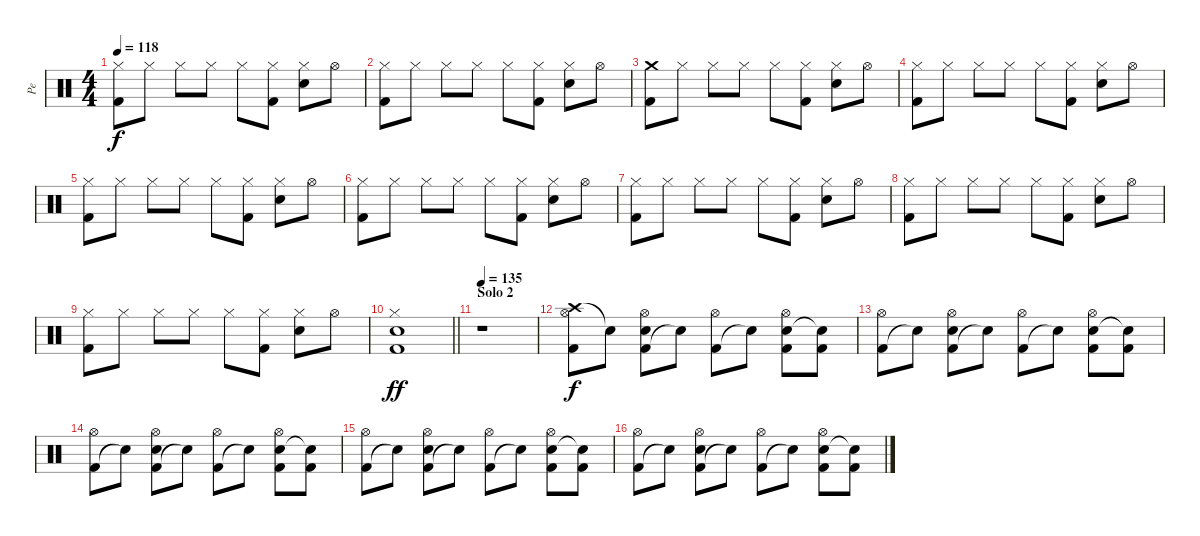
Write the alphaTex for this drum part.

\track ("Pe" "Pe") {instrument percussion}
\staff {score}
\articulation defaults
\ts (4 4)
\tempo 118
\clef neutral
\ks c
("Hi-Hat (closed)" "Kick (hit) 2").8{dy f} "Hi-Hat (closed)".8 "Hi-Hat (closed)".8 "Hi-Hat (closed)".8 "Hi-Hat (closed)".8 ("Hi-Hat (closed)" "Kick (hit) 2").8 ("Hi-Hat (closed)" "Electric Snare (hit)").8 "Hi-Hat (open)".8 |
("Hi-Hat (closed)" "Kick (hit) 2").8 "Hi-Hat (closed)".8 "Hi-Hat (closed)".8 "Hi-Hat (closed)".8 "Hi-Hat (closed)".8 ("Hi-Hat (closed)" "Kick (hit) 2").8 ("Hi-Hat (closed)" "Electric Snare (hit)").8 "Hi-Hat (open)".8 |
("Crash medium (hit)" "Kick (hit) 2").8 "Hi-Hat (closed)".8 "Hi-Hat (closed)".8 "Hi-Hat (closed)".8 "Hi-Hat (closed)".8 ("Hi-Hat (closed)" "Kick (hit) 2").8 ("Hi-Hat (closed)" "Electric Snare (hit)").8 "Hi-Hat (open)".8 |
("Hi-Hat (closed)" "Kick (hit) 2").8 "Hi-Hat (closed)".8 "Hi-Hat (closed)".8 "Hi-Hat (closed)".8 "Hi-Hat (closed)".8 ("Hi-Hat (closed)" "Kick (hit) 2").8 ("Hi-Hat (closed)" "Electric Snare (hit)").8 "Hi-Hat (open)".8 |
("Hi-Hat (closed)" "Kick (hit) 2").8 "Hi-Hat (closed)".8 "Hi-Hat (closed)".8 "Hi-Hat (closed)".8 "Hi-Hat (closed)".8 ("Hi-Hat (closed)" "Kick (hit) 2").8 ("Hi-Hat (closed)" "Electric Snare (hit)").8 "Hi-Hat (open)".8 |
("Hi-Hat (closed)" "Kick (hit) 2").8 "Hi-Hat (closed)".8 "Hi-Hat (closed)".8 "Hi-Hat (closed)".8 "Hi-Hat (closed)".8 ("Hi-Hat (closed)" "Kick (hit) 2").8 ("Hi-Hat (closed)" "Electric Snare (hit)").8 "Hi-Hat (open)".8 |
("Hi-Hat (closed)" "Kick (hit) 2").8 "Hi-Hat (closed)".8 "Hi-Hat (closed)".8 "Hi-Hat (closed)".8 "Hi-Hat (closed)".8 ("Hi-Hat (closed)" "Kick (hit) 2").8 ("Hi-Hat (closed)" "Electric Snare (hit)").8 "Hi-Hat (open)".8 |
("Hi-Hat (closed)" "Kick (hit) 2").8 "Hi-Hat (closed)".8 "Hi-Hat (closed)".8 "Hi-Hat (closed)".8 "Hi-Hat (closed)".8 ("Hi-Hat (closed)" "Kick (hit) 2").8 ("Hi-Hat (closed)" "Electric Snare (hit)").8 "Hi-Hat (open)".8 |
("Hi-Hat (closed)" "Kick (hit) 2").8 "Hi-Hat (closed)".8 "Hi-Hat (closed)".8 "Hi-Hat (closed)".8 "Hi-Hat (closed)".8 ("Hi-Hat (closed)" "Kick (hit) 2").8 ("Hi-Hat (closed)" "Electric Snare (hit)").8 "Hi-Hat (open)".8 |
\barLineRight lightlight
("Hi-Hat (closed)" "Electric Snare (hit)" "Kick (hit) 2").1{dy ff} |
\section ("" "Solo 2")
\tempo 135
r.1 |
("Crash high (hit)" "Kick (hit) 2" "Hi-Hat (open)").8{dy f} "Snare (hit)"{t}.8 ("Kick (hit) 2" "Electric Snare (hit)" "Hi-Hat (open)").8 "Snare (hit)"{t}.8 ("Kick (hit) 2" "Hi-Hat (open)").8 "Snare (hit)"{t}.8 ("Kick (hit) 2" "Electric Snare (hit)" "Hi-Hat (open)").8 ("Kick (hit) 2" "Snare (hit)"{t}).8 |
("Kick (hit) 2" "Hi-Hat (open)").8 "Snare (hit)"{t}.8 ("Kick (hit) 2" "Electric Snare (hit)" "Hi-Hat (open)").8 "Snare (hit)"{t}.8 ("Kick (hit) 2" "Hi-Hat (open)").8 "Snare (hit)"{t}.8 ("Kick (hit) 2" "Electric Snare (hit)" "Hi-Hat (open)").8 ("Kick (hit) 2" "Snare (hit)"{t}).8 |
("Kick (hit) 2" "Hi-Hat (open)").8 "Snare (hit)"{t}.8 ("Kick (hit) 2" "Electric Snare (hit)" "Hi-Hat (open)").8 "Snare (hit)"{t}.8 ("Kick (hit) 2" "Hi-Hat (open)").8 "Snare (hit)"{t}.8 ("Kick (hit) 2" "Electric Snare (hit)" "Hi-Hat (open)").8 ("Kick (hit) 2" "Snare (hit)"{t}).8 |
("Kick (hit) 2" "Hi-Hat (open)").8 "Snare (hit)"{t}.8 ("Kick (hit) 2" "Electric Snare (hit)" "Hi-Hat (open)").8 "Snare (hit)"{t}.8 ("Kick (hit) 2" "Hi-Hat (open)").8 "Snare (hit)"{t}.8 ("Kick (hit) 2" "Electric Snare (hit)" "Hi-Hat (open)").8 ("Kick (hit) 2" "Snare (hit)"{t}).8 |
("Kick (hit) 2" "Hi-Hat (open)").8 "Snare (hit)"{t}.8 ("Kick (hit) 2" "Electric Snare (hit)" "Hi-Hat (open)").8 "Snare (hit)"{t}.8 ("Kick (hit) 2" "Hi-Hat (open)").8 "Snare (hit)"{t}.8 ("Kick (hit) 2" "Electric Snare (hit)" "Hi-Hat (open)").8 ("Kick (hit) 2" "Snare (hit)"{t}).8
